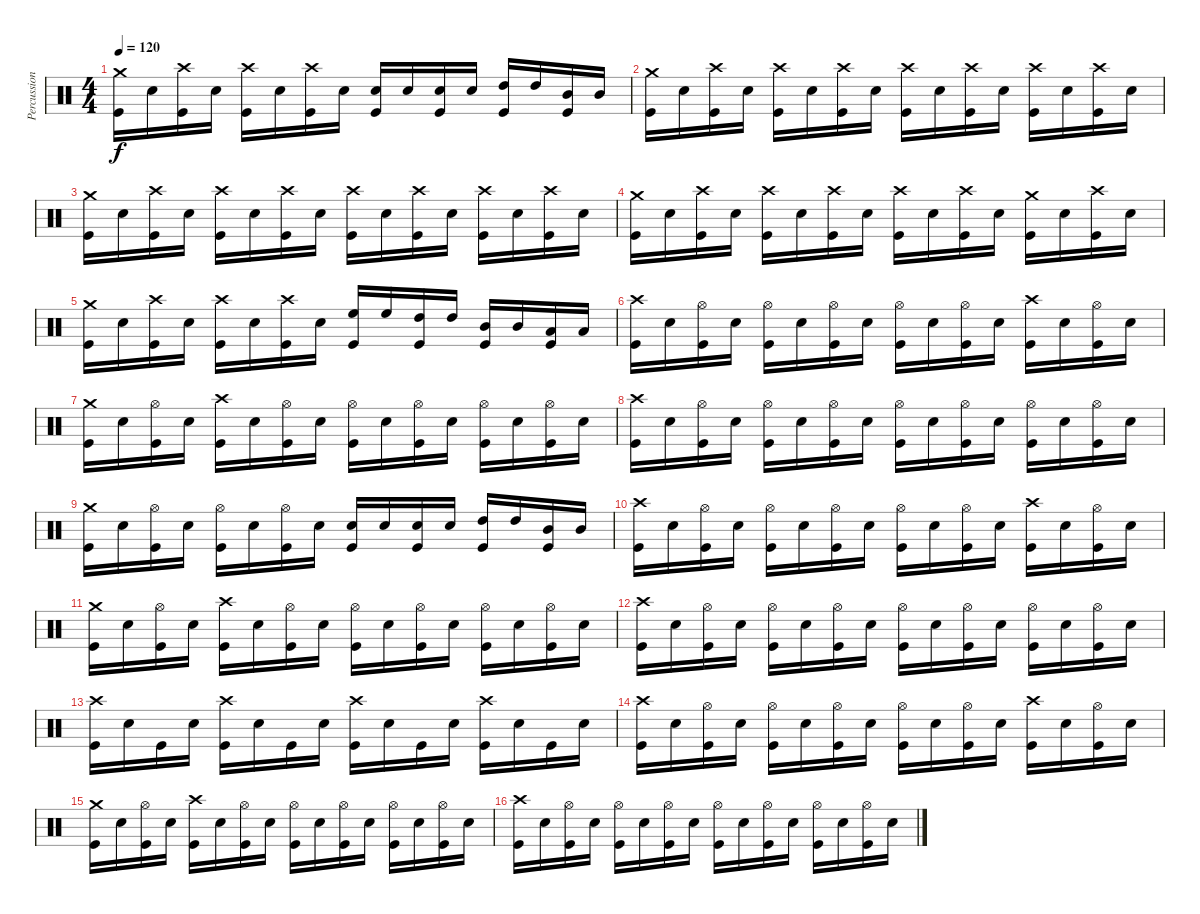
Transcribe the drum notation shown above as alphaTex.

\track ("Percussioni" "Percussion") {instrument percussion}
\staff {score}
\articulation defaults
\ts (4 4)
\tempo 120
\clef neutral
\ks c
("Crash medium (hit)" "Kick (hit)").16{dy f} "Electric Snare (hit)".16 ("Crash high (hit)" "Kick (hit)").16 "Electric Snare (hit)".16 ("Crash high (hit)" "Kick (hit)").16 "Electric Snare (hit)".16 ("Crash high (hit)" "Kick (hit)").16 "Electric Snare (hit)".16 ("Electric Snare (hit)" "Kick (hit)").16 "Electric Snare (hit)".16 ("Electric Snare (hit)" "Kick (hit)").16 "Electric Snare (hit)".16 ("High Tom (hit)" "Kick (hit)").16 "High Tom (hit)".16 ("Mid Tom (hit)" "Kick (hit)").16 "Mid Tom (hit)".16 |
("Crash medium (hit)" "Kick (hit)").16 "Electric Snare (hit)".16 ("Crash high (hit)" "Kick (hit)").16 "Electric Snare (hit)".16 ("Crash high (hit)" "Kick (hit)").16 "Electric Snare (hit)".16 ("Crash high (hit)" "Kick (hit)").16 "Electric Snare (hit)".16 ("Crash high (hit)" "Kick (hit)").16 "Electric Snare (hit)".16 ("Crash high (hit)" "Kick (hit)").16 "Electric Snare (hit)".16 ("Crash high (hit)" "Kick (hit)").16 "Electric Snare (hit)".16 ("Crash high (hit)" "Kick (hit)").16 "Electric Snare (hit)".16 |
("Crash medium (hit)" "Kick (hit)").16 "Electric Snare (hit)".16 ("Crash high (hit)" "Kick (hit)").16 "Electric Snare (hit)".16 ("Crash high (hit)" "Kick (hit)").16 "Electric Snare (hit)".16 ("Crash high (hit)" "Kick (hit)").16 "Electric Snare (hit)".16 ("Crash high (hit)" "Kick (hit)").16 "Electric Snare (hit)".16 ("Crash high (hit)" "Kick (hit)").16 "Electric Snare (hit)".16 ("Crash high (hit)" "Kick (hit)").16 "Electric Snare (hit)".16 ("Crash high (hit)" "Kick (hit)").16 "Electric Snare (hit)".16 |
("Crash medium (hit)" "Kick (hit)").16 "Electric Snare (hit)".16 ("Crash high (hit)" "Kick (hit)").16 "Electric Snare (hit)".16 ("Crash high (hit)" "Kick (hit)").16 "Electric Snare (hit)".16 ("Crash high (hit)" "Kick (hit)").16 "Electric Snare (hit)".16 ("Crash high (hit)" "Kick (hit)").16 "Electric Snare (hit)".16 ("Crash high (hit)" "Kick (hit)").16 "Electric Snare (hit)".16 ("Crash medium (hit)" "Kick (hit)").16 "Electric Snare (hit)".16 ("Crash high (hit)" "Kick (hit)").16 "Electric Snare (hit)".16 |
("Crash medium (hit)" "Kick (hit)").16 "Electric Snare (hit)".16 ("Crash high (hit)" "Kick (hit)").16 "Electric Snare (hit)".16 ("Crash high (hit)" "Kick (hit)").16 "Electric Snare (hit)".16 ("Crash high (hit)" "Kick (hit)").16 "Electric Snare (hit)".16 ("High Floor Tom (hit)" "Kick (hit)").16 "High Floor Tom (hit)".16 ("High Tom (hit)" "Kick (hit)").16 "High Tom (hit)".16 ("Mid Tom (hit)" "Kick (hit)").16 "Mid Tom (hit)".16 ("Low Tom (hit)" "Kick (hit)").16 "Low Tom (hit)".16 |
("Crash high (hit)" "Kick (hit)").16 "Electric Snare (hit)".16 ("Hi-Hat (open)" "Kick (hit)").16 "Electric Snare (hit)".16 ("Hi-Hat (open)" "Kick (hit)").16 "Electric Snare (hit)".16 ("Hi-Hat (open)" "Kick (hit)").16 "Electric Snare (hit)".16 ("Hi-Hat (open)" "Kick (hit)").16 "Electric Snare (hit)".16 ("Hi-Hat (open)" "Kick (hit)").16 "Electric Snare (hit)".16 ("Crash high (hit)" "Kick (hit)").16 "Electric Snare (hit)".16 ("Hi-Hat (open)" "Kick (hit)").16 "Electric Snare (hit)".16 |
("Crash medium (hit)" "Kick (hit)").16 "Electric Snare (hit)".16 ("Hi-Hat (open)" "Kick (hit)").16 "Electric Snare (hit)".16 ("Crash high (hit)" "Kick (hit)").16 "Electric Snare (hit)".16 ("Hi-Hat (open)" "Kick (hit)").16 "Electric Snare (hit)".16 ("Hi-Hat (open)" "Kick (hit)").16 "Electric Snare (hit)".16 ("Hi-Hat (open)" "Kick (hit)").16 "Electric Snare (hit)".16 ("Hi-Hat (open)" "Kick (hit)").16 "Electric Snare (hit)".16 ("Hi-Hat (open)" "Kick (hit)").16 "Electric Snare (hit)".16 |
("Crash high (hit)" "Kick (hit)").16 "Electric Snare (hit)".16 ("Hi-Hat (open)" "Kick (hit)").16 "Electric Snare (hit)".16 ("Hi-Hat (open)" "Kick (hit)").16 "Electric Snare (hit)".16 ("Hi-Hat (open)" "Kick (hit)").16 "Electric Snare (hit)".16 ("Hi-Hat (open)" "Kick (hit)").16 "Electric Snare (hit)".16 ("Hi-Hat (open)" "Kick (hit)").16 "Electric Snare (hit)".16 ("Hi-Hat (open)" "Kick (hit)").16 "Electric Snare (hit)".16 ("Hi-Hat (open)" "Kick (hit)").16 "Electric Snare (hit)".16 |
("Crash medium (hit)" "Kick (hit)").16 "Electric Snare (hit)".16 ("Hi-Hat (open)" "Kick (hit)").16 "Electric Snare (hit)".16 ("Hi-Hat (open)" "Kick (hit)").16 "Electric Snare (hit)".16 ("Hi-Hat (open)" "Kick (hit)").16 "Electric Snare (hit)".16 ("Electric Snare (hit)" "Kick (hit)").16 "Electric Snare (hit)".16 ("Electric Snare (hit)" "Kick (hit)").16 "Electric Snare (hit)".16 ("High Tom (hit)" "Kick (hit)").16 "High Tom (hit)".16 ("Mid Tom (hit)" "Kick (hit)").16 "Mid Tom (hit)".16 |
("Crash high (hit)" "Kick (hit)").16 "Electric Snare (hit)".16 ("Hi-Hat (open)" "Kick (hit)").16 "Electric Snare (hit)".16 ("Hi-Hat (open)" "Kick (hit)").16 "Electric Snare (hit)".16 ("Hi-Hat (open)" "Kick (hit)").16 "Electric Snare (hit)".16 ("Hi-Hat (open)" "Kick (hit)").16 "Electric Snare (hit)".16 ("Hi-Hat (open)" "Kick (hit)").16 "Electric Snare (hit)".16 ("Crash high (hit)" "Kick (hit)").16 "Electric Snare (hit)".16 ("Hi-Hat (open)" "Kick (hit)").16 "Electric Snare (hit)".16 |
("Crash medium (hit)" "Kick (hit)").16 "Electric Snare (hit)".16 ("Hi-Hat (open)" "Kick (hit)").16 "Electric Snare (hit)".16 ("Crash high (hit)" "Kick (hit)").16 "Electric Snare (hit)".16 ("Hi-Hat (open)" "Kick (hit)").16 "Electric Snare (hit)".16 ("Hi-Hat (open)" "Kick (hit)").16 "Electric Snare (hit)".16 ("Hi-Hat (open)" "Kick (hit)").16 "Electric Snare (hit)".16 ("Hi-Hat (open)" "Kick (hit)").16 "Electric Snare (hit)".16 ("Hi-Hat (open)" "Kick (hit)").16 "Electric Snare (hit)".16 |
("Crash high (hit)" "Kick (hit)").16 "Electric Snare (hit)".16 ("Hi-Hat (open)" "Kick (hit)").16 "Electric Snare (hit)".16 ("Hi-Hat (open)" "Kick (hit)").16 "Electric Snare (hit)".16 ("Hi-Hat (open)" "Kick (hit)").16 "Electric Snare (hit)".16 ("Hi-Hat (open)" "Kick (hit)").16 "Electric Snare (hit)".16 ("Hi-Hat (open)" "Kick (hit)").16 "Electric Snare (hit)".16 ("Hi-Hat (open)" "Kick (hit)").16 "Electric Snare (hit)".16 ("Hi-Hat (open)" "Kick (hit)").16 "Electric Snare (hit)".16 |
("Crash high (hit)" "Kick (hit)").16 "Electric Snare (hit)".16 "Kick (hit)".16 "Electric Snare (hit)".16 ("Crash high (hit)" "Kick (hit)").16 "Electric Snare (hit)".16 "Kick (hit)".16 "Electric Snare (hit)".16 ("Crash high (hit)" "Kick (hit)").16 "Electric Snare (hit)".16 "Kick (hit)".16 "Electric Snare (hit)".16 ("Crash high (hit)" "Kick (hit)").16 "Electric Snare (hit)".16 "Kick (hit)".16 "Electric Snare (hit)".16 |
("Crash high (hit)" "Kick (hit)").16 "Electric Snare (hit)".16 ("Hi-Hat (open)" "Kick (hit)").16 "Electric Snare (hit)".16 ("Hi-Hat (open)" "Kick (hit)").16 "Electric Snare (hit)".16 ("Hi-Hat (open)" "Kick (hit)").16 "Electric Snare (hit)".16 ("Hi-Hat (open)" "Kick (hit)").16 "Electric Snare (hit)".16 ("Hi-Hat (open)" "Kick (hit)").16 "Electric Snare (hit)".16 ("Crash high (hit)" "Kick (hit)").16 "Electric Snare (hit)".16 ("Hi-Hat (open)" "Kick (hit)").16 "Electric Snare (hit)".16 |
("Crash medium (hit)" "Kick (hit)").16 "Electric Snare (hit)".16 ("Hi-Hat (open)" "Kick (hit)").16 "Electric Snare (hit)".16 ("Crash high (hit)" "Kick (hit)").16 "Electric Snare (hit)".16 ("Hi-Hat (open)" "Kick (hit)").16 "Electric Snare (hit)".16 ("Hi-Hat (open)" "Kick (hit)").16 "Electric Snare (hit)".16 ("Hi-Hat (open)" "Kick (hit)").16 "Electric Snare (hit)".16 ("Hi-Hat (open)" "Kick (hit)").16 "Electric Snare (hit)".16 ("Hi-Hat (open)" "Kick (hit)").16 "Electric Snare (hit)".16 |
("Crash high (hit)" "Kick (hit)").16 "Electric Snare (hit)".16 ("Hi-Hat (open)" "Kick (hit)").16 "Electric Snare (hit)".16 ("Hi-Hat (open)" "Kick (hit)").16 "Electric Snare (hit)".16 ("Hi-Hat (open)" "Kick (hit)").16 "Electric Snare (hit)".16 ("Hi-Hat (open)" "Kick (hit)").16 "Electric Snare (hit)".16 ("Hi-Hat (open)" "Kick (hit)").16 "Electric Snare (hit)".16 ("Hi-Hat (open)" "Kick (hit)").16 "Electric Snare (hit)".16 ("Hi-Hat (open)" "Kick (hit)").16 "Electric Snare (hit)".16
